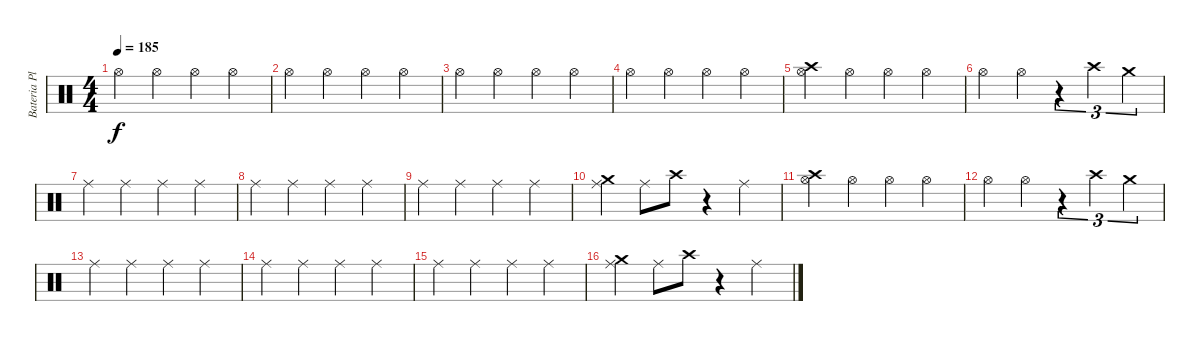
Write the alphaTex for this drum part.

\track ("Bateria Platos" "Bateria Pl") {instrument percussion}
\staff {score}
\articulation defaults
\ts (4 4)
\tempo 185
\clef neutral
\ks c "Hi-Hat (open)".4{dy f} "Hi-Hat (open)".4 "Hi-Hat (open)".4 "Hi-Hat (open)".4
|
"Hi-Hat (open)".4 "Hi-Hat (open)".4 "Hi-Hat (open)".4 "Hi-Hat (open)".4 |
"Hi-Hat (open)".4 "Hi-Hat (open)".4 "Hi-Hat (open)".4 "Hi-Hat (open)".4 |
"Hi-Hat (open)".4 "Hi-Hat (open)".4 "Hi-Hat (open)".4 "Hi-Hat (open)".4 |
("Crash high (hit)" "Hi-Hat (open)").4 "Hi-Hat (open)".4 "Hi-Hat (open)".4 "Hi-Hat (open)".4 |
"Hi-Hat (open)".4 "Hi-Hat (open)".4 r.4{tu (3 2)} "Crash high (hit)".4{tu (3 2)} "Crash medium (hit)".4{tu (3 2)} |
"Ride (middle)".4 "Ride (middle)".4 "Ride (middle)".4 "Ride (middle)".4 |
"Ride (middle)".4 "Ride (middle)".4 "Ride (middle)".4 "Ride (middle)".4 |
"Ride (middle)".4 "Ride (middle)".4 "Ride (middle)".4 "Ride (middle)".4 |
("Crash medium (hit)" "Ride (middle)").4 "Ride (middle)".8 "Crash high (hit)".8 r.4 "Ride (middle)".4 |
("Crash high (hit)" "Hi-Hat (open)").4 "Hi-Hat (open)".4 "Hi-Hat (open)".4 "Hi-Hat (open)".4 |
"Hi-Hat (open)".4 "Hi-Hat (open)".4 r.4{tu (3 2)} "Crash high (hit)".4{tu (3 2)} "Crash medium (hit)".4{tu (3 2)} |
"Ride (middle)".4 "Ride (middle)".4 "Ride (middle)".4 "Ride (middle)".4 |
"Ride (middle)".4 "Ride (middle)".4 "Ride (middle)".4 "Ride (middle)".4 |
"Ride (middle)".4 "Ride (middle)".4 "Ride (middle)".4 "Ride (middle)".4 |
("Crash medium (hit)" "Ride (middle)").4 "Ride (middle)".8 "Crash high (hit)".8 r.4 "Ride (middle)".4
